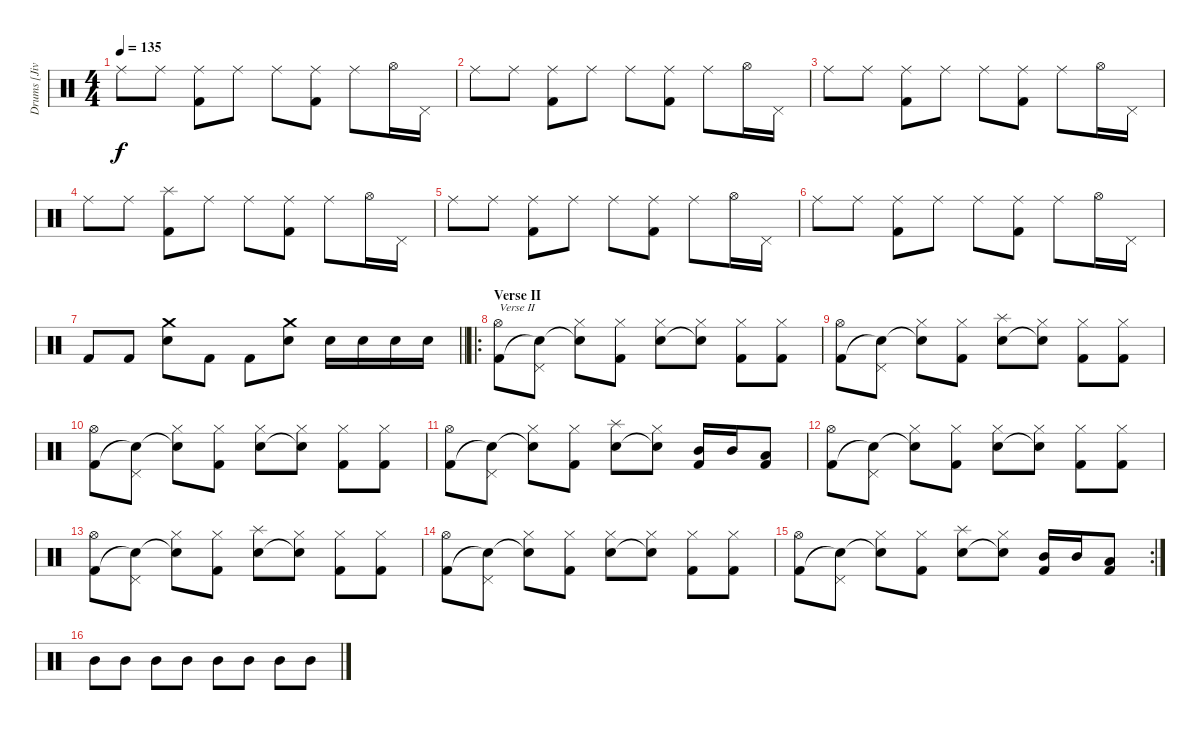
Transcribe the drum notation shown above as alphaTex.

\track ("Drums [Jivarp]" "Drums [Jiv") {instrument percussion}
\staff {score}
\articulation defaults
\ts (4 4)
\tempo 135
\clef neutral
\ks c "Ride (middle)".8{dy f} "Ride (middle)".8
("Ride (middle)" "Kick (hit) 2").8 "Ride (middle)".8 "Ride (middle)".8 ("Ride (middle)" "Kick (hit) 2").8 "Ride (middle)".8 "Hi-Hat (open)".16 "Pedal Hi-Hat (hit)".16 |
"Ride (middle)".8 "Ride (middle)".8 ("Ride (middle)" "Kick (hit) 2").8 "Ride (middle)".8 "Ride (middle)".8 ("Ride (middle)" "Kick (hit) 2").8 "Ride (middle)".8 "Hi-Hat (open)".16 "Pedal Hi-Hat (hit)".16 |
"Ride (middle)".8 "Ride (middle)".8 ("Ride (middle)" "Kick (hit) 2").8 "Ride (middle)".8 "Ride (middle)".8 ("Ride (middle)" "Kick (hit) 2").8 "Ride (middle)".8 "Hi-Hat (open)".16 "Pedal Hi-Hat (hit)".16 |
"Ride (middle)".8 "Ride (middle)".8 ("Splash (hit)" "Kick (hit) 2").8 "Ride (middle)".8 "Ride (middle)".8 ("Ride (middle)" "Kick (hit) 2").8 "Ride (middle)".8 "Hi-Hat (open)".16 "Pedal Hi-Hat (hit)".16 |
"Ride (middle)".8 "Ride (middle)".8 ("Ride (middle)" "Kick (hit) 2").8 "Ride (middle)".8 "Ride (middle)".8 ("Ride (middle)" "Kick (hit) 2").8 "Ride (middle)".8 "Hi-Hat (open)".16 "Pedal Hi-Hat (hit)".16 |
"Ride (middle)".8 "Ride (middle)".8 ("Ride (middle)" "Kick (hit) 2").8 "Ride (middle)".8 "Ride (middle)".8 ("Ride (middle)" "Kick (hit) 2").8 "Ride (middle)".8 "Hi-Hat (open)".16 "Pedal Hi-Hat (hit)".16 |
\barLineRight lightlight "Kick (hit) 2".8 "Kick (hit) 2".8
("Crash medium (hit)" "Electric Snare (hit)").8 "Kick (hit) 2".8 "Kick (hit) 2".8 ("Crash medium (hit)" "Electric Snare (hit)").8 "Electric Snare (hit)".16 "Electric Snare (hit)".16 "Electric Snare (hit)".16 "Electric Snare (hit)".16 |
\ro
\section ("" "Verse II")
("Hi-Hat (open)" "Kick (hit) 2").8{txt "Verse II"} ("Pedal Hi-Hat (hit)" "Snare (hit)"{t}).8 ("Hi-Hat (closed)" "Snare (hit)"{t}).8 ("Hi-Hat (closed)" "Kick (hit) 2").8 ("Hi-Hat (closed)" "Electric Snare (hit)").8 ("Hi-Hat (closed)" "Snare (hit)"{t}).8 ("Hi-Hat (closed)" "Kick (hit) 2").8 ("Hi-Hat (closed)" "Kick (hit) 2").8 |
("Hi-Hat (open)" "Kick (hit) 2").8 ("Pedal Hi-Hat (hit)" "Snare (hit)"{t}).8 ("Hi-Hat (closed)" "Snare (hit)"{t}).8 ("Hi-Hat (closed)" "Kick (hit) 2").8 ("Splash (hit)" "Electric Snare (hit)").8 ("Hi-Hat (closed)" "Snare (hit)"{t}).8 ("Hi-Hat (closed)" "Kick (hit) 2").8 ("Hi-Hat (closed)" "Kick (hit) 2").8 |
("Hi-Hat (open)" "Kick (hit) 2").8 ("Pedal Hi-Hat (hit)" "Snare (hit)"{t}).8 ("Hi-Hat (closed)" "Snare (hit)"{t}).8 ("Hi-Hat (closed)" "Kick (hit) 2").8 ("Hi-Hat (closed)" "Electric Snare (hit)").8 ("Hi-Hat (closed)" "Snare (hit)"{t}).8 ("Hi-Hat (closed)" "Kick (hit) 2").8 ("Hi-Hat (closed)" "Kick (hit) 2").8 |
("Hi-Hat (open)" "Kick (hit) 2").8 ("Pedal Hi-Hat (hit)" "Snare (hit)"{t}).8 ("Hi-Hat (closed)" "Snare (hit)"{t}).8 ("Hi-Hat (closed)" "Kick (hit) 2").8 ("Splash (hit)" "Electric Snare (hit)").8 ("Hi-Hat (closed)" "Snare (hit)"{t}).8 ("Mid Tom (hit)" "Kick (hit) 2").16 "Mid Tom (hit)".16 ("Low Tom (hit)" "Kick (hit) 2").8 |
("Hi-Hat (open)" "Kick (hit) 2").8 ("Pedal Hi-Hat (hit)" "Snare (hit)"{t}).8 ("Hi-Hat (closed)" "Snare (hit)"{t}).8 ("Hi-Hat (closed)" "Kick (hit) 2").8 ("Hi-Hat (closed)" "Electric Snare (hit)").8 ("Hi-Hat (closed)" "Snare (hit)"{t}).8 ("Hi-Hat (closed)" "Kick (hit) 2").8 ("Hi-Hat (closed)" "Kick (hit) 2").8 |
("Hi-Hat (open)" "Kick (hit) 2").8 ("Pedal Hi-Hat (hit)" "Snare (hit)"{t}).8 ("Hi-Hat (closed)" "Snare (hit)"{t}).8 ("Hi-Hat (closed)" "Kick (hit) 2").8 ("Splash (hit)" "Electric Snare (hit)").8 ("Hi-Hat (closed)" "Snare (hit)"{t}).8 ("Hi-Hat (closed)" "Kick (hit) 2").8 ("Hi-Hat (closed)" "Kick (hit) 2").8 |
("Hi-Hat (open)" "Kick (hit) 2").8 ("Pedal Hi-Hat (hit)" "Snare (hit)"{t}).8 ("Hi-Hat (closed)" "Snare (hit)"{t}).8 ("Hi-Hat (closed)" "Kick (hit) 2").8 ("Hi-Hat (closed)" "Electric Snare (hit)").8 ("Hi-Hat (closed)" "Snare (hit)"{t}).8 ("Hi-Hat (closed)" "Kick (hit) 2").8 ("Hi-Hat (closed)" "Kick (hit) 2").8 |
\rc 2
("Hi-Hat (open)" "Kick (hit) 2").8 ("Pedal Hi-Hat (hit)" "Snare (hit)"{t}).8 ("Hi-Hat (closed)" "Snare (hit)"{t}).8 ("Hi-Hat (closed)" "Kick (hit) 2").8 ("Splash (hit)" "Electric Snare (hit)").8 ("Hi-Hat (closed)" "Snare (hit)"{t}).8 ("Mid Tom (hit)" "Kick (hit) 2").16 "Mid Tom (hit)".16 ("Low Tom (hit)" "Kick (hit) 2").8 |
"Mid Tom (hit)".8 "Mid Tom (hit)".8 "Mid Tom (hit)".8 "Mid Tom (hit)".8 "Mid Tom (hit)".8 "Mid Tom (hit)".8 "Mid Tom (hit)".8 "Mid Tom (hit)".8
